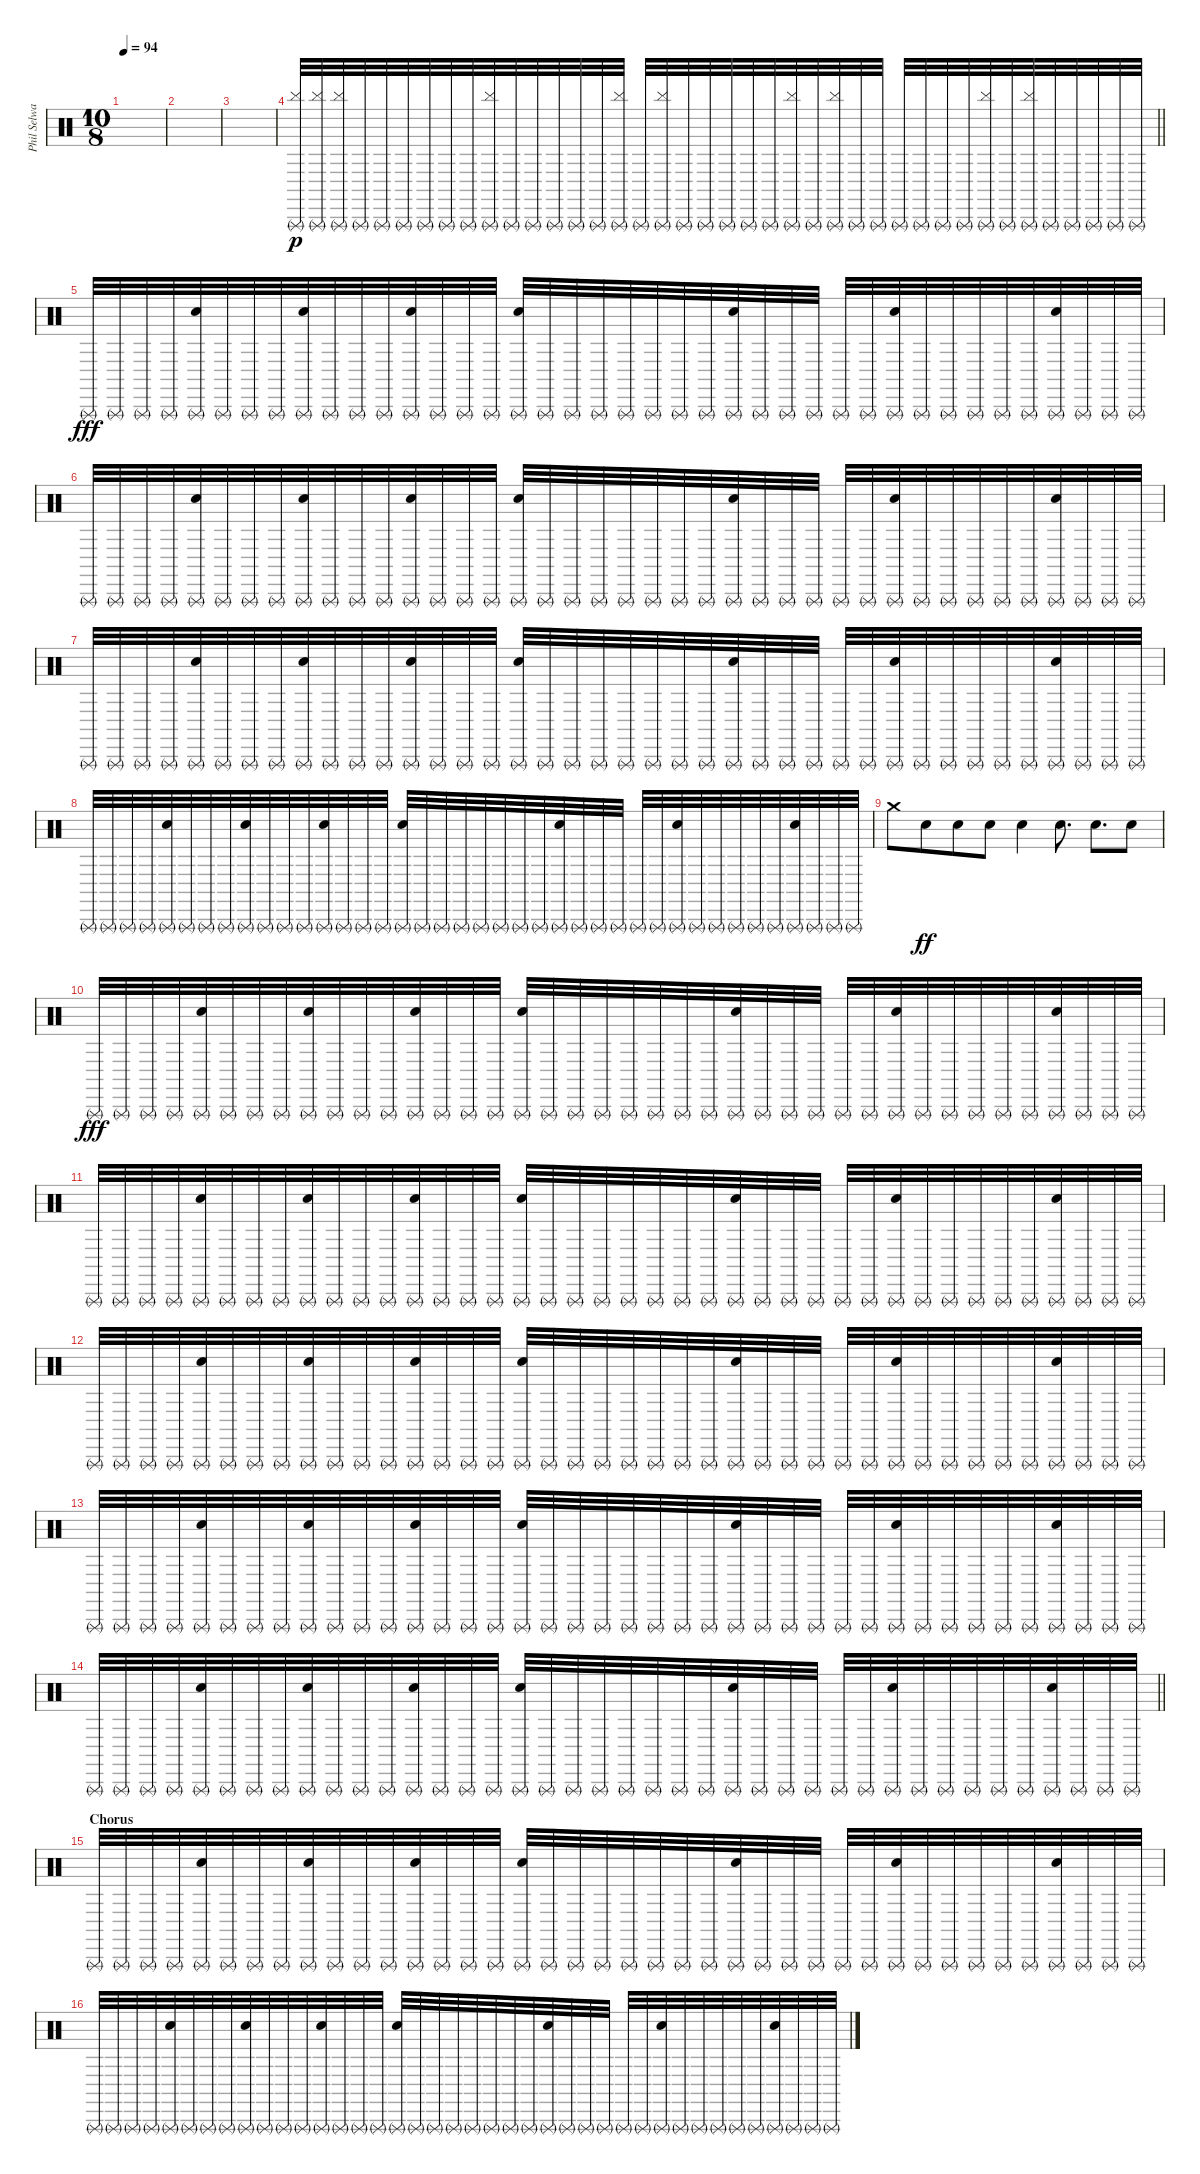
\track ("Phil Selway" "Phil Selwa") {instrument percussion}
\staff {score}
\articulation defaults
\ts (10 8)
\tempo 94
\clef neutral
\ks c
|
|
|
\barLineRight lightlight
("Cymbal (hit)" "Triangle (rnute)").32{dy p} ("Cymbal (hit)" "Triangle (rnute)").32 ("Cymbal (hit)" "Triangle (rnute)").32 "Triangle (rnute)".32 "Triangle (rnute)".32 "Triangle (rnute)".32 "Triangle (rnute)".32 "Triangle (rnute)".32 "Triangle (rnute)".32 ("Cymbal (hit)" "Triangle (rnute)").32 "Triangle (rnute)".32 "Triangle (rnute)".32 "Triangle (rnute)".32 "Triangle (rnute)".32 "Triangle (rnute)".32 ("Cymbal (hit)" "Triangle (rnute)").32 "Triangle (rnute)".32 ("Cymbal (hit)" "Triangle (rnute)").32 "Triangle (rnute)".32 "Triangle (rnute)".32 "Triangle (rnute)".32 "Triangle (rnute)".32 "Triangle (rnute)".32 ("Cymbal (hit)" "Triangle (rnute)").32 "Triangle (rnute)".32 ("Cymbal (hit)" "Triangle (rnute)").32 "Triangle (rnute)".32 "Triangle (rnute)".32 "Triangle (rnute)".32 "Triangle (rnute)".32 "Triangle (rnute)".32 "Triangle (rnute)".32 ("Cymbal (hit)" "Triangle (rnute)").32 "Triangle (rnute)".32 ("Cymbal (hit)" "Triangle (rnute)").32 "Triangle (rnute)".32 "Triangle (rnute)".32 "Triangle (rnute)".32 "Triangle (rnute)".32 "Triangle (rnute)".32 |
\section ("" "")
"Triangle (rnute)".32{dy fff} "Triangle (rnute)".32 "Triangle (rnute)".32 "Triangle (rnute)".32 ("Triangle (rnute)" "Hand Clap (hit)").32 "Triangle (rnute)".32 "Triangle (rnute)".32 "Triangle (rnute)".32 ("Triangle (rnute)" "Hand Clap (hit)").32 "Triangle (rnute)".32 "Triangle (rnute)".32 "Triangle (rnute)".32 ("Triangle (rnute)" "Hand Clap (hit)").32 "Triangle (rnute)".32 "Triangle (rnute)".32 "Triangle (rnute)".32 ("Triangle (rnute)" "Hand Clap (hit)").32 "Triangle (rnute)".32 "Triangle (rnute)".32 "Triangle (rnute)".32 "Triangle (rnute)".32 "Triangle (rnute)".32 "Triangle (rnute)".32 "Triangle (rnute)".32 ("Triangle (rnute)" "Hand Clap (hit)").32 "Triangle (rnute)".32 "Triangle (rnute)".32 "Triangle (rnute)".32 "Triangle (rnute)".32 "Triangle (rnute)".32 ("Triangle (rnute)" "Hand Clap (hit)").32 "Triangle (rnute)".32 "Triangle (rnute)".32 "Triangle (rnute)".32 "Triangle (rnute)".32 "Triangle (rnute)".32 ("Triangle (rnute)" "Hand Clap (hit)").32 "Triangle (rnute)".32 "Triangle (rnute)".32 "Triangle (rnute)".32 |
"Triangle (rnute)".32 "Triangle (rnute)".32 "Triangle (rnute)".32 "Triangle (rnute)".32 ("Triangle (rnute)" "Hand Clap (hit)").32 "Triangle (rnute)".32 "Triangle (rnute)".32 "Triangle (rnute)".32 ("Triangle (rnute)" "Hand Clap (hit)").32 "Triangle (rnute)".32 "Triangle (rnute)".32 "Triangle (rnute)".32 ("Triangle (rnute)" "Hand Clap (hit)").32 "Triangle (rnute)".32 "Triangle (rnute)".32 "Triangle (rnute)".32 ("Triangle (rnute)" "Hand Clap (hit)").32 "Triangle (rnute)".32 "Triangle (rnute)".32 "Triangle (rnute)".32 "Triangle (rnute)".32 "Triangle (rnute)".32 "Triangle (rnute)".32 "Triangle (rnute)".32 ("Triangle (rnute)" "Hand Clap (hit)").32 "Triangle (rnute)".32 "Triangle (rnute)".32 "Triangle (rnute)".32 "Triangle (rnute)".32 "Triangle (rnute)".32 ("Triangle (rnute)" "Hand Clap (hit)").32 "Triangle (rnute)".32 "Triangle (rnute)".32 "Triangle (rnute)".32 "Triangle (rnute)".32 "Triangle (rnute)".32 ("Triangle (rnute)" "Hand Clap (hit)").32 "Triangle (rnute)".32 "Triangle (rnute)".32 "Triangle (rnute)".32 |
"Triangle (rnute)".32 "Triangle (rnute)".32 "Triangle (rnute)".32 "Triangle (rnute)".32 ("Triangle (rnute)" "Hand Clap (hit)").32 "Triangle (rnute)".32 "Triangle (rnute)".32 "Triangle (rnute)".32 ("Triangle (rnute)" "Hand Clap (hit)").32 "Triangle (rnute)".32 "Triangle (rnute)".32 "Triangle (rnute)".32 ("Triangle (rnute)" "Hand Clap (hit)").32 "Triangle (rnute)".32 "Triangle (rnute)".32 "Triangle (rnute)".32 ("Triangle (rnute)" "Hand Clap (hit)").32 "Triangle (rnute)".32 "Triangle (rnute)".32 "Triangle (rnute)".32 "Triangle (rnute)".32 "Triangle (rnute)".32 "Triangle (rnute)".32 "Triangle (rnute)".32 ("Triangle (rnute)" "Hand Clap (hit)").32 "Triangle (rnute)".32 "Triangle (rnute)".32 "Triangle (rnute)".32 "Triangle (rnute)".32 "Triangle (rnute)".32 ("Triangle (rnute)" "Hand Clap (hit)").32 "Triangle (rnute)".32 "Triangle (rnute)".32 "Triangle (rnute)".32 "Triangle (rnute)".32 "Triangle (rnute)".32 ("Triangle (rnute)" "Hand Clap (hit)").32 "Triangle (rnute)".32 "Triangle (rnute)".32 "Triangle (rnute)".32 |
"Triangle (rnute)".32 "Triangle (rnute)".32 "Triangle (rnute)".32 "Triangle (rnute)".32 ("Triangle (rnute)" "Hand Clap (hit)").32 "Triangle (rnute)".32 "Triangle (rnute)".32 "Triangle (rnute)".32 ("Triangle (rnute)" "Hand Clap (hit)").32 "Triangle (rnute)".32 "Triangle (rnute)".32 "Triangle (rnute)".32 ("Triangle (rnute)" "Hand Clap (hit)").32 "Triangle (rnute)".32 "Triangle (rnute)".32 "Triangle (rnute)".32 ("Triangle (rnute)" "Hand Clap (hit)").32 "Triangle (rnute)".32 "Triangle (rnute)".32 "Triangle (rnute)".32 "Triangle (rnute)".32 "Triangle (rnute)".32 "Triangle (rnute)".32 "Triangle (rnute)".32 ("Triangle (rnute)" "Hand Clap (hit)").32 "Triangle (rnute)".32 "Triangle (rnute)".32 "Triangle (rnute)".32 "Triangle (rnute)".32 "Triangle (rnute)".32 ("Triangle (rnute)" "Hand Clap (hit)").32 "Triangle (rnute)".32 "Triangle (rnute)".32 "Triangle (rnute)".32 "Triangle (rnute)".32 "Triangle (rnute)".32 ("Triangle (rnute)" "Hand Clap (hit)").32 "Triangle (rnute)".32 "Triangle (rnute)".32 "Triangle (rnute)".32 |
"Crash medium (hit)".8 "Hand Clap (hit)".8{dy ff} "Hand Clap (hit)".8 "Hand Clap (hit)".8 "Hand Clap (hit)".4 "Hand Clap (hit)".8{d} "Hand Clap (hit)".8{d} "Hand Clap (hit)".8 |
"Triangle (rnute)".32{dy fff} "Triangle (rnute)".32 "Triangle (rnute)".32 "Triangle (rnute)".32 ("Triangle (rnute)" "Hand Clap (hit)").32 "Triangle (rnute)".32 "Triangle (rnute)".32 "Triangle (rnute)".32 ("Triangle (rnute)" "Hand Clap (hit)").32 "Triangle (rnute)".32 "Triangle (rnute)".32 "Triangle (rnute)".32 ("Triangle (rnute)" "Hand Clap (hit)").32 "Triangle (rnute)".32 "Triangle (rnute)".32 "Triangle (rnute)".32 ("Triangle (rnute)" "Hand Clap (hit)").32 "Triangle (rnute)".32 "Triangle (rnute)".32 "Triangle (rnute)".32 "Triangle (rnute)".32 "Triangle (rnute)".32 "Triangle (rnute)".32 "Triangle (rnute)".32 ("Triangle (rnute)" "Hand Clap (hit)").32 "Triangle (rnute)".32 "Triangle (rnute)".32 "Triangle (rnute)".32 "Triangle (rnute)".32 "Triangle (rnute)".32 ("Triangle (rnute)" "Hand Clap (hit)").32 "Triangle (rnute)".32 "Triangle (rnute)".32 "Triangle (rnute)".32 "Triangle (rnute)".32 "Triangle (rnute)".32 ("Triangle (rnute)" "Hand Clap (hit)").32 "Triangle (rnute)".32 "Triangle (rnute)".32 "Triangle (rnute)".32 |
"Triangle (rnute)".32 "Triangle (rnute)".32 "Triangle (rnute)".32 "Triangle (rnute)".32 ("Triangle (rnute)" "Hand Clap (hit)").32 "Triangle (rnute)".32 "Triangle (rnute)".32 "Triangle (rnute)".32 ("Triangle (rnute)" "Hand Clap (hit)").32 "Triangle (rnute)".32 "Triangle (rnute)".32 "Triangle (rnute)".32 ("Triangle (rnute)" "Hand Clap (hit)").32 "Triangle (rnute)".32 "Triangle (rnute)".32 "Triangle (rnute)".32 ("Triangle (rnute)" "Hand Clap (hit)").32 "Triangle (rnute)".32 "Triangle (rnute)".32 "Triangle (rnute)".32 "Triangle (rnute)".32 "Triangle (rnute)".32 "Triangle (rnute)".32 "Triangle (rnute)".32 ("Triangle (rnute)" "Hand Clap (hit)").32 "Triangle (rnute)".32 "Triangle (rnute)".32 "Triangle (rnute)".32 "Triangle (rnute)".32 "Triangle (rnute)".32 ("Triangle (rnute)" "Hand Clap (hit)").32 "Triangle (rnute)".32 "Triangle (rnute)".32 "Triangle (rnute)".32 "Triangle (rnute)".32 "Triangle (rnute)".32 ("Triangle (rnute)" "Hand Clap (hit)").32 "Triangle (rnute)".32 "Triangle (rnute)".32 "Triangle (rnute)".32 |
"Triangle (rnute)".32 "Triangle (rnute)".32 "Triangle (rnute)".32 "Triangle (rnute)".32 ("Triangle (rnute)" "Hand Clap (hit)").32 "Triangle (rnute)".32 "Triangle (rnute)".32 "Triangle (rnute)".32 ("Triangle (rnute)" "Hand Clap (hit)").32 "Triangle (rnute)".32 "Triangle (rnute)".32 "Triangle (rnute)".32 ("Triangle (rnute)" "Hand Clap (hit)").32 "Triangle (rnute)".32 "Triangle (rnute)".32 "Triangle (rnute)".32 ("Triangle (rnute)" "Hand Clap (hit)").32 "Triangle (rnute)".32 "Triangle (rnute)".32 "Triangle (rnute)".32 "Triangle (rnute)".32 "Triangle (rnute)".32 "Triangle (rnute)".32 "Triangle (rnute)".32 ("Triangle (rnute)" "Hand Clap (hit)").32 "Triangle (rnute)".32 "Triangle (rnute)".32 "Triangle (rnute)".32 "Triangle (rnute)".32 "Triangle (rnute)".32 ("Triangle (rnute)" "Hand Clap (hit)").32 "Triangle (rnute)".32 "Triangle (rnute)".32 "Triangle (rnute)".32 "Triangle (rnute)".32 "Triangle (rnute)".32 ("Triangle (rnute)" "Hand Clap (hit)").32 "Triangle (rnute)".32 "Triangle (rnute)".32 "Triangle (rnute)".32 |
"Triangle (rnute)".32 "Triangle (rnute)".32 "Triangle (rnute)".32 "Triangle (rnute)".32 ("Triangle (rnute)" "Hand Clap (hit)").32 "Triangle (rnute)".32 "Triangle (rnute)".32 "Triangle (rnute)".32 ("Triangle (rnute)" "Hand Clap (hit)").32 "Triangle (rnute)".32 "Triangle (rnute)".32 "Triangle (rnute)".32 ("Triangle (rnute)" "Hand Clap (hit)").32 "Triangle (rnute)".32 "Triangle (rnute)".32 "Triangle (rnute)".32 ("Triangle (rnute)" "Hand Clap (hit)").32 "Triangle (rnute)".32 "Triangle (rnute)".32 "Triangle (rnute)".32 "Triangle (rnute)".32 "Triangle (rnute)".32 "Triangle (rnute)".32 "Triangle (rnute)".32 ("Triangle (rnute)" "Hand Clap (hit)").32 "Triangle (rnute)".32 "Triangle (rnute)".32 "Triangle (rnute)".32 "Triangle (rnute)".32 "Triangle (rnute)".32 ("Triangle (rnute)" "Hand Clap (hit)").32 "Triangle (rnute)".32 "Triangle (rnute)".32 "Triangle (rnute)".32 "Triangle (rnute)".32 "Triangle (rnute)".32 ("Triangle (rnute)" "Hand Clap (hit)").32 "Triangle (rnute)".32 "Triangle (rnute)".32 "Triangle (rnute)".32 |
\barLineRight lightlight "Triangle (rnute)".32 "Triangle (rnute)".32 "Triangle (rnute)".32 "Triangle (rnute)".32
("Triangle (rnute)" "Hand Clap (hit)").32 "Triangle (rnute)".32 "Triangle (rnute)".32 "Triangle (rnute)".32 ("Triangle (rnute)" "Hand Clap (hit)").32 "Triangle (rnute)".32 "Triangle (rnute)".32 "Triangle (rnute)".32 ("Triangle (rnute)" "Hand Clap (hit)").32 "Triangle (rnute)".32 "Triangle (rnute)".32 "Triangle (rnute)".32 ("Triangle (rnute)" "Hand Clap (hit)").32 "Triangle (rnute)".32 "Triangle (rnute)".32 "Triangle (rnute)".32 "Triangle (rnute)".32 "Triangle (rnute)".32 "Triangle (rnute)".32 "Triangle (rnute)".32 ("Triangle (rnute)" "Hand Clap (hit)").32 "Triangle (rnute)".32 "Triangle (rnute)".32 "Triangle (rnute)".32 "Triangle (rnute)".32 "Triangle (rnute)".32 ("Triangle (rnute)" "Hand Clap (hit)").32 "Triangle (rnute)".32 "Triangle (rnute)".32 "Triangle (rnute)".32 "Triangle (rnute)".32 "Triangle (rnute)".32 ("Triangle (rnute)" "Hand Clap (hit)").32 "Triangle (rnute)".32 "Triangle (rnute)".32 "Triangle (rnute)".32 |
\section ("" "Chorus")
"Triangle (rnute)".32 "Triangle (rnute)".32 "Triangle (rnute)".32 "Triangle (rnute)".32 ("Triangle (rnute)" "Hand Clap (hit)").32 "Triangle (rnute)".32 "Triangle (rnute)".32 "Triangle (rnute)".32 ("Triangle (rnute)" "Hand Clap (hit)").32 "Triangle (rnute)".32 "Triangle (rnute)".32 "Triangle (rnute)".32 ("Triangle (rnute)" "Hand Clap (hit)").32 "Triangle (rnute)".32 "Triangle (rnute)".32 "Triangle (rnute)".32 ("Triangle (rnute)" "Hand Clap (hit)").32 "Triangle (rnute)".32 "Triangle (rnute)".32 "Triangle (rnute)".32 "Triangle (rnute)".32 "Triangle (rnute)".32 "Triangle (rnute)".32 "Triangle (rnute)".32 ("Triangle (rnute)" "Hand Clap (hit)").32 "Triangle (rnute)".32 "Triangle (rnute)".32 "Triangle (rnute)".32 "Triangle (rnute)".32 "Triangle (rnute)".32 ("Triangle (rnute)" "Hand Clap (hit)").32 "Triangle (rnute)".32 "Triangle (rnute)".32 "Triangle (rnute)".32 "Triangle (rnute)".32 "Triangle (rnute)".32 ("Triangle (rnute)" "Hand Clap (hit)").32 "Triangle (rnute)".32 "Triangle (rnute)".32 "Triangle (rnute)".32 |
"Triangle (rnute)".32 "Triangle (rnute)".32 "Triangle (rnute)".32 "Triangle (rnute)".32 ("Triangle (rnute)" "Hand Clap (hit)").32 "Triangle (rnute)".32 "Triangle (rnute)".32 "Triangle (rnute)".32 ("Triangle (rnute)" "Hand Clap (hit)").32 "Triangle (rnute)".32 "Triangle (rnute)".32 "Triangle (rnute)".32 ("Triangle (rnute)" "Hand Clap (hit)").32 "Triangle (rnute)".32 "Triangle (rnute)".32 "Triangle (rnute)".32 ("Triangle (rnute)" "Hand Clap (hit)").32 "Triangle (rnute)".32 "Triangle (rnute)".32 "Triangle (rnute)".32 "Triangle (rnute)".32 "Triangle (rnute)".32 "Triangle (rnute)".32 "Triangle (rnute)".32 ("Triangle (rnute)" "Hand Clap (hit)").32 "Triangle (rnute)".32 "Triangle (rnute)".32 "Triangle (rnute)".32 "Triangle (rnute)".32 "Triangle (rnute)".32 ("Triangle (rnute)" "Hand Clap (hit)").32 "Triangle (rnute)".32 "Triangle (rnute)".32 "Triangle (rnute)".32 "Triangle (rnute)".32 "Triangle (rnute)".32 ("Triangle (rnute)" "Hand Clap (hit)").32 "Triangle (rnute)".32 "Triangle (rnute)".32 "Triangle (rnute)".32
